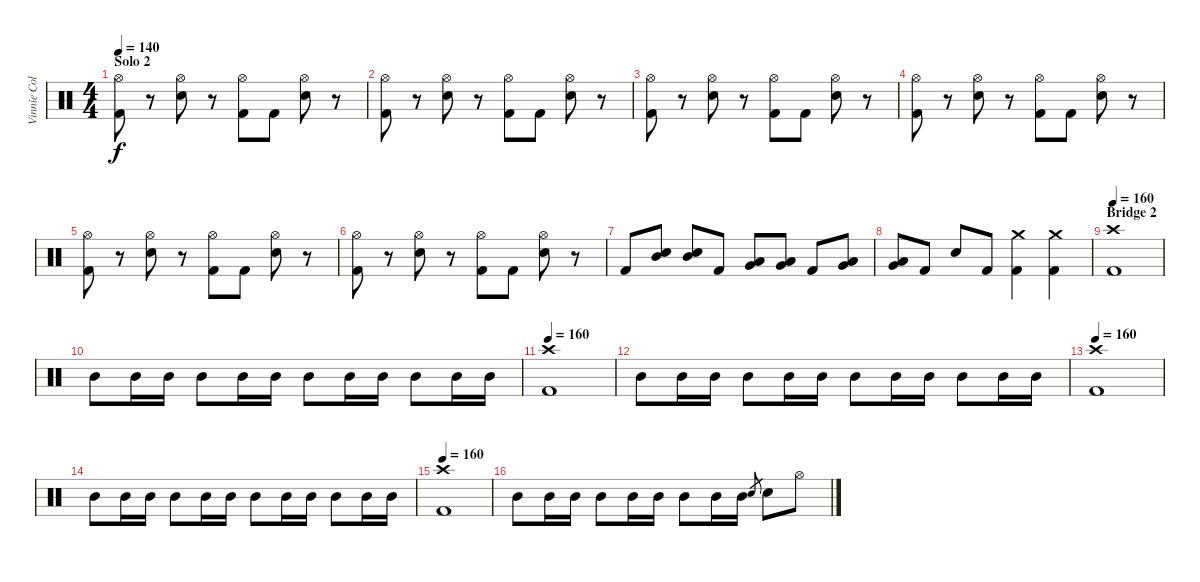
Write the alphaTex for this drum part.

\track ("Vinnie Colaiuta" "Vinnie Col") {instrument percussion}
\staff {score}
\articulation defaults
\ts (4 4)
\section ("" "Solo 2")
\tempo 140
\clef neutral
\ks c
("Hi-Hat (open)"{t} "Kick (hit) 2"{t}).8{dy f} r.8 ("Hi-Hat (open)" "Snare (hit) 2").8 r.8 ("Hi-Hat (open)" "Kick (hit) 2").8 "Kick (hit) 2".8 ("Hi-Hat (open)" "Snare (hit) 2").8 r.8 |
("Hi-Hat (open)" "Kick (hit) 2").8 r.8 ("Hi-Hat (open)" "Snare (hit) 2").8 r.8 ("Hi-Hat (open)" "Kick (hit) 2").8 "Kick (hit) 2".8 ("Hi-Hat (open)" "Snare (hit) 2").8 r.8 |
("Hi-Hat (open)" "Kick (hit) 2").8 r.8 ("Hi-Hat (open)" "Snare (hit) 2").8 r.8 ("Hi-Hat (open)" "Kick (hit) 2").8 "Kick (hit) 2".8 ("Hi-Hat (open)" "Snare (hit) 2").8 r.8 |
("Hi-Hat (open)" "Kick (hit) 2").8 r.8 ("Hi-Hat (open)" "Snare (hit) 2").8 r.8 ("Hi-Hat (open)" "Kick (hit) 2").8 "Kick (hit) 2".8 ("Hi-Hat (open)" "Snare (hit) 2").8 r.8 |
("Hi-Hat (open)" "Kick (hit) 2").8 r.8 ("Hi-Hat (open)" "Snare (hit) 2").8 r.8 ("Hi-Hat (open)" "Kick (hit) 2").8 "Kick (hit) 2".8 ("Hi-Hat (open)" "Snare (hit) 2").8 r.8 |
("Hi-Hat (open)" "Kick (hit) 2").8 r.8 ("Hi-Hat (open)" "Snare (hit) 2").8 r.8 ("Hi-Hat (open)" "Kick (hit) 2").8 "Kick (hit) 2".8 ("Hi-Hat (open)" "Snare (hit) 2").8 r.8 |
"Kick (hit) 2".8 ("Mid Tom (hit)" "Snare (hit) 2").8 ("Mid Tom (hit)" "Snare (hit) 2").8 "Kick (hit) 2".8 ("Low Tom (hit)" "Very Low Tom (hit)").8 ("Low Tom (hit)" "Very Low Tom (hit)").8 "Kick (hit) 2".8 ("Very Low Tom (hit)" "Low Floor Tom (hit)").8 |
("Very Low Tom (hit)" "Low Floor Tom (hit)").8 "Kick (hit) 2".8 "Snare (hit) 2".8 "Kick (hit) 2".8 ("Crash medium (hit)" "Kick (hit) 2").4 ("Crash medium (hit)" "Kick (hit) 2").4 |
\section ("" "Bridge 2")
\tempo 160
("Crash high (hit)" "Kick (hit) 2").1 |
"Mid Tom (hit)".8 "Mid Tom (hit)".16 "Mid Tom (hit)".16 "Mid Tom (hit)".8 "Mid Tom (hit)".16 "Mid Tom (hit)".16 "Mid Tom (hit)".8 "Mid Tom (hit)".16 "Mid Tom (hit)".16 "Mid Tom (hit)".8 "Mid Tom (hit)".16 "Mid Tom (hit)".16 |
\tempo 160
("Crash high (hit)" "Kick (hit) 2").1 |
"Mid Tom (hit)".8 "Mid Tom (hit)".16 "Mid Tom (hit)".16 "Mid Tom (hit)".8 "Mid Tom (hit)".16 "Mid Tom (hit)".16 "Mid Tom (hit)".8 "Mid Tom (hit)".16 "Mid Tom (hit)".16 "Mid Tom (hit)".8 "Mid Tom (hit)".16 "Mid Tom (hit)".16 |
\tempo 160
("Crash high (hit)" "Kick (hit) 2").1 |
"Mid Tom (hit)".8 "Mid Tom (hit)".16 "Mid Tom (hit)".16 "Mid Tom (hit)".8 "Mid Tom (hit)".16 "Mid Tom (hit)".16 "Mid Tom (hit)".8 "Mid Tom (hit)".16 "Mid Tom (hit)".16 "Mid Tom (hit)".8 "Mid Tom (hit)".16 "Mid Tom (hit)".16 |
\tempo 160
("Crash high (hit)" "Kick (hit) 2").1 |
"Mid Tom (hit)".8 "Mid Tom (hit)".16 "Mid Tom (hit)".16 "Mid Tom (hit)".8 "Mid Tom (hit)".16 "Mid Tom (hit)".16 "Mid Tom (hit)".8 "Mid Tom (hit)".16 "Mid Tom (hit)".16 "Snare (hit) 2".8{gr} "Snare (hit) 2".8 "Hi-Hat (open)".8
